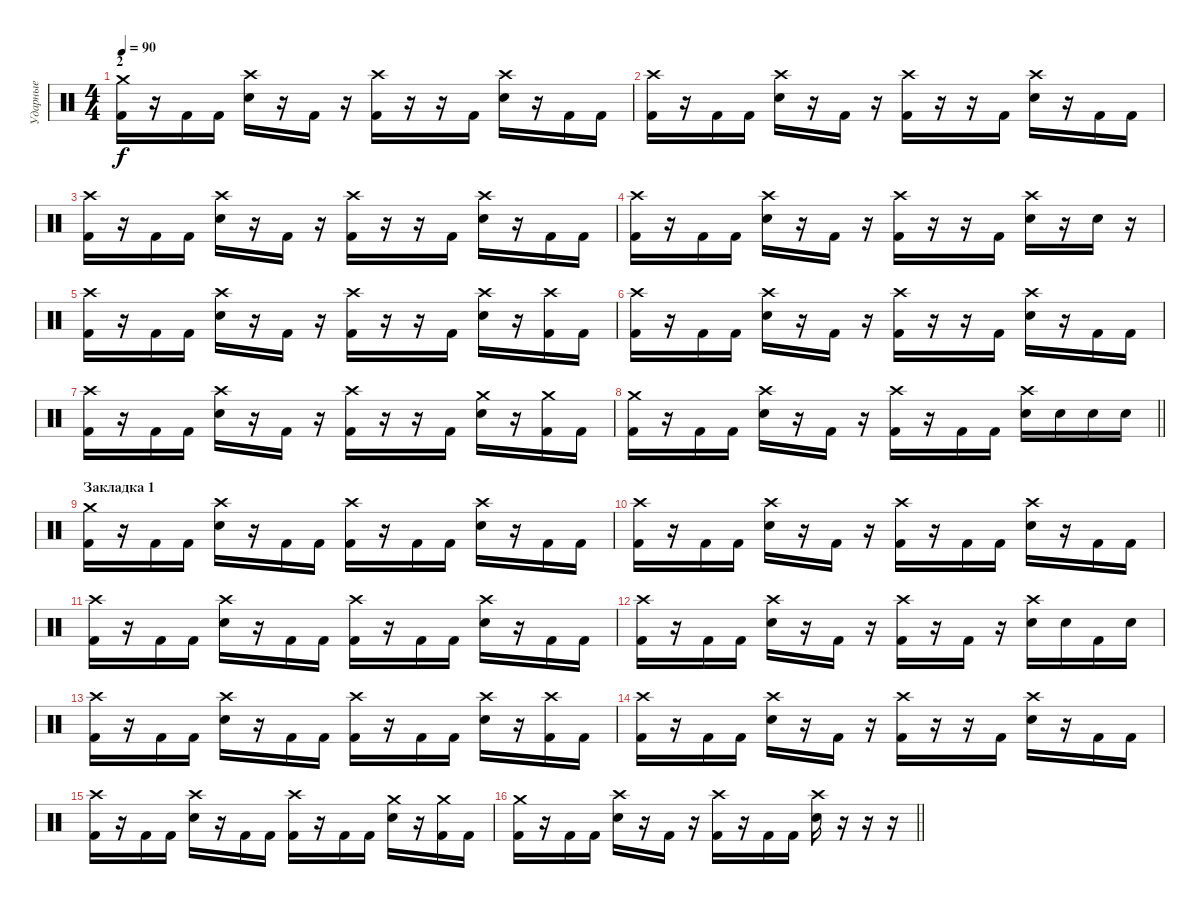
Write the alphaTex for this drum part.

\track ("Ударные" "Ударные") {instrument percussion}
\staff {score}
\articulation defaults
\ts (4 4)
\section ("" "2")
\tempo 90
\clef neutral
\ks c
("Crash medium (hit)" "Kick (hit) 2").16{dy f} r.16 "Kick (hit) 2".16 "Kick (hit) 2".16 ("Crash high (hit)" "Snare (hit) 2").16 r.16 "Kick (hit) 2".16 r.16 ("Crash high (hit)" "Kick (hit) 2").16 r.16 r.16 "Kick (hit) 2".16 ("Crash high (hit)" "Snare (hit) 2").16 r.16 "Kick (hit) 2".16 "Kick (hit) 2".16 |
("Crash high (hit)" "Kick (hit) 2").16 r.16 "Kick (hit) 2".16 "Kick (hit) 2".16 ("Crash high (hit)" "Snare (hit) 2").16 r.16 "Kick (hit) 2".16 r.16 ("Crash high (hit)" "Kick (hit) 2").16 r.16 r.16 "Kick (hit) 2".16 ("Crash high (hit)" "Snare (hit) 2").16 r.16 "Kick (hit) 2".16 "Kick (hit) 2".16 |
("Crash high (hit)" "Kick (hit) 2").16 r.16 "Kick (hit) 2".16 "Kick (hit) 2".16 ("Crash high (hit)" "Snare (hit) 2").16 r.16 "Kick (hit) 2".16 r.16 ("Crash high (hit)" "Kick (hit) 2").16 r.16 r.16 "Kick (hit) 2".16 ("Crash high (hit)" "Snare (hit) 2").16 r.16 "Kick (hit) 2".16 "Kick (hit) 2".16 |
("Crash high (hit)" "Kick (hit) 2").16 r.16 "Kick (hit) 2".16 "Kick (hit) 2".16 ("Crash high (hit)" "Snare (hit) 2").16 r.16 "Kick (hit) 2".16 r.16 ("Crash high (hit)" "Kick (hit) 2").16 r.16 r.16 "Kick (hit) 2".16 ("Crash high (hit)" "Snare (hit) 2").16 r.16 "Snare (hit) 2".16 r.16 |
("Crash high (hit)" "Kick (hit) 2").16 r.16 "Kick (hit) 2".16 "Kick (hit) 2".16 ("Crash high (hit)" "Snare (hit) 2").16 r.16 "Kick (hit) 2".16 r.16 ("Crash high (hit)" "Kick (hit) 2").16 r.16 r.16 "Kick (hit) 2".16 ("Crash high (hit)" "Snare (hit) 2").16 r.16 ("Crash high (hit)" "Kick (hit) 2").16 "Kick (hit) 2".16 |
("Crash high (hit)" "Kick (hit) 2").16 r.16 "Kick (hit) 2".16 "Kick (hit) 2".16 ("Crash high (hit)" "Snare (hit) 2").16 r.16 "Kick (hit) 2".16 r.16 ("Crash high (hit)" "Kick (hit) 2").16 r.16 r.16 "Kick (hit) 2".16 ("Crash high (hit)" "Snare (hit) 2").16 r.16 "Kick (hit) 2".16 "Kick (hit) 2".16 |
("Crash high (hit)" "Kick (hit) 2").16 r.16 "Kick (hit) 2".16 "Kick (hit) 2".16 ("Crash high (hit)" "Snare (hit) 2").16 r.16 "Kick (hit) 2".16 r.16 ("Crash high (hit)" "Kick (hit) 2").16 r.16 r.16 "Kick (hit) 2".16 ("Crash medium (hit)" "Snare (hit) 2").16 r.16 ("Crash medium (hit)" "Kick (hit) 2").16 "Kick (hit) 2".16 |
\barLineRight lightlight
("Crash medium (hit)" "Kick (hit) 2").16 r.16 "Kick (hit) 2".16 "Kick (hit) 2".16 ("Crash high (hit)" "Snare (hit) 2").16 r.16 "Kick (hit) 2".16 r.16 ("Crash high (hit)" "Kick (hit) 2").16 r.16 "Kick (hit) 2".16 "Kick (hit) 2".16 ("Crash high (hit)" "Snare (hit) 2").16 "Snare (hit) 2".16 "Snare (hit) 2".16 "Snare (hit) 2".16 |
\section ("" "Закладка 1")
("Crash medium (hit)" "Kick (hit) 2").16 r.16 "Kick (hit) 2".16 "Kick (hit) 2".16 ("Crash high (hit)" "Snare (hit) 2").16 r.16 "Kick (hit) 2".16 "Kick (hit) 2".16 ("Crash high (hit)" "Kick (hit) 2").16 r.16 "Kick (hit) 2".16 "Kick (hit) 2".16 ("Crash high (hit)" "Snare (hit) 2").16 r.16 "Kick (hit) 2".16 "Kick (hit) 2".16 |
("Crash high (hit)" "Kick (hit) 2").16 r.16 "Kick (hit) 2".16 "Kick (hit) 2".16 ("Crash high (hit)" "Snare (hit) 2").16 r.16 "Kick (hit) 2".16 r.16 ("Crash high (hit)" "Kick (hit) 2").16 r.16 "Kick (hit) 2".16 "Kick (hit) 2".16 ("Crash high (hit)" "Snare (hit) 2").16 r.16 "Kick (hit) 2".16 "Kick (hit) 2".16 |
("Crash high (hit)" "Kick (hit) 2").16 r.16 "Kick (hit) 2".16 "Kick (hit) 2".16 ("Crash high (hit)" "Snare (hit) 2").16 r.16 "Kick (hit) 2".16 "Kick (hit) 2".16 ("Crash high (hit)" "Kick (hit) 2").16 r.16 "Kick (hit) 2".16 "Kick (hit) 2".16 ("Crash high (hit)" "Snare (hit) 2").16 r.16 "Kick (hit) 2".16 "Kick (hit) 2".16 |
("Crash high (hit)" "Kick (hit) 2").16 r.16 "Kick (hit) 2".16 "Kick (hit) 2".16 ("Crash high (hit)" "Snare (hit) 2").16 r.16 "Kick (hit) 2".16 r.16 ("Crash high (hit)" "Kick (hit) 2").16 r.16 "Kick (hit) 2".16 r.16 ("Crash high (hit)" "Snare (hit) 2").16 "Snare (hit) 2".16 "Kick (hit) 2".16 "Snare (hit) 2".16 |
("Crash high (hit)" "Kick (hit) 2").16 r.16 "Kick (hit) 2".16 "Kick (hit) 2".16 ("Crash high (hit)" "Snare (hit) 2").16 r.16 "Kick (hit) 2".16 "Kick (hit) 2".16 ("Crash high (hit)" "Kick (hit) 2").16 r.16 "Kick (hit) 2".16 "Kick (hit) 2".16 ("Crash high (hit)" "Snare (hit) 2").16 r.16 ("Crash high (hit)" "Kick (hit) 2").16 "Kick (hit) 2".16 |
("Crash high (hit)" "Kick (hit) 2").16 r.16 "Kick (hit) 2".16 "Kick (hit) 2".16 ("Crash high (hit)" "Snare (hit) 2").16 r.16 "Kick (hit) 2".16 r.16 ("Crash high (hit)" "Kick (hit) 2").16 r.16 r.16 "Kick (hit) 2".16 ("Crash high (hit)" "Snare (hit) 2").16 r.16 "Kick (hit) 2".16 "Kick (hit) 2".16 |
("Crash high (hit)" "Kick (hit) 2").16 r.16 "Kick (hit) 2".16 "Kick (hit) 2".16 ("Crash high (hit)" "Snare (hit) 2").16 r.16 "Kick (hit) 2".16 "Kick (hit) 2".16 ("Crash high (hit)" "Kick (hit) 2").16 r.16 "Kick (hit) 2".16 "Kick (hit) 2".16 ("Crash medium (hit)" "Snare (hit) 2").16 r.16 ("Crash medium (hit)" "Kick (hit) 2").16 "Kick (hit) 2".16 |
\barLineRight lightlight
("Crash medium (hit)" "Kick (hit) 2").16 r.16 "Kick (hit) 2".16 "Kick (hit) 2".16 ("Crash high (hit)" "Snare (hit) 2").16 r.16 "Kick (hit) 2".16 r.16 ("Crash high (hit)" "Kick (hit) 2").16 r.16 "Kick (hit) 2".16 "Kick (hit) 2".16 ("Crash high (hit)" "Snare (hit) 2").16 r.16 r.16 r.16
